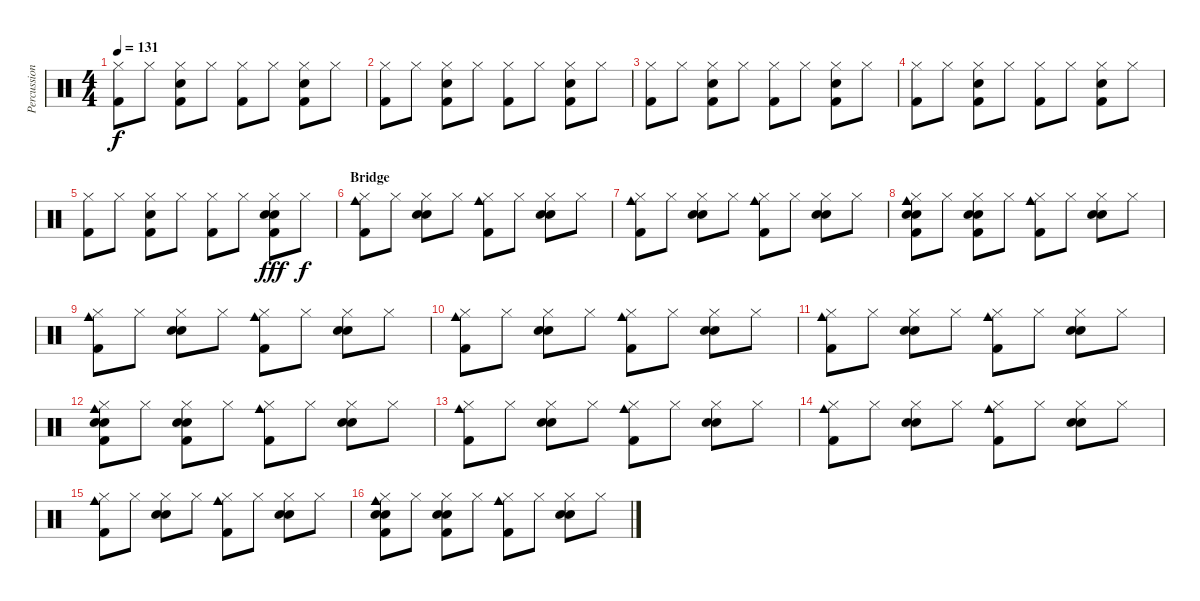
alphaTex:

\track ("Percussion" "Percussion") {instrument percussion}
\staff {score}
\articulation defaults
\ts (4 4)
\tempo 131
\clef neutral
\ks c
("Hi-Hat (closed)" "Kick (hit) 2").8{dy f} "Hi-Hat (closed)".8 ("Hand Clap (hit)" "Hi-Hat (closed)" "Kick (hit) 2").8 "Hi-Hat (closed)".8 ("Hi-Hat (closed)" "Kick (hit) 2").8 "Hi-Hat (closed)".8 ("Hand Clap (hit)" "Hi-Hat (closed)" "Kick (hit) 2").8 "Hi-Hat (closed)".8 |
("Hi-Hat (closed)" "Kick (hit) 2").8 "Hi-Hat (closed)".8 ("Hand Clap (hit)" "Hi-Hat (closed)" "Kick (hit) 2").8 "Hi-Hat (closed)".8 ("Hi-Hat (closed)" "Kick (hit) 2").8 "Hi-Hat (closed)".8 ("Hand Clap (hit)" "Hi-Hat (closed)" "Kick (hit) 2").8 "Hi-Hat (closed)".8 |
("Hi-Hat (closed)" "Kick (hit) 2").8 "Hi-Hat (closed)".8 ("Hand Clap (hit)" "Hi-Hat (closed)" "Kick (hit) 2").8 "Hi-Hat (closed)".8 ("Hi-Hat (closed)" "Kick (hit) 2").8 "Hi-Hat (closed)".8 ("Hand Clap (hit)" "Hi-Hat (closed)" "Kick (hit) 2").8 "Hi-Hat (closed)".8 |
("Hi-Hat (closed)" "Kick (hit) 2").8 "Hi-Hat (closed)".8 ("Hand Clap (hit)" "Hi-Hat (closed)" "Kick (hit) 2").8 "Hi-Hat (closed)".8 ("Hi-Hat (closed)" "Kick (hit) 2").8 "Hi-Hat (closed)".8 ("Hand Clap (hit)" "Hi-Hat (closed)" "Kick (hit) 2").8 "Hi-Hat (closed)".8 |
("Hi-Hat (closed)" "Kick (hit) 2").8 "Hi-Hat (closed)".8 ("Hand Clap (hit)" "Hi-Hat (closed)" "Kick (hit) 2").8 "Hi-Hat (closed)".8 ("Hi-Hat (closed)" "Kick (hit) 2").8 "Hi-Hat (closed)".8 ("Hand Clap (hit)" "Hi-Hat (closed)" "Electric Snare (hit)" "Kick (hit) 2").8{dy fff} "Hi-Hat (closed)".8{dy f} |
\section ("" "Bridge")
("Hi-Hat (closed)" "Cowbell medium (hit)" "Kick (hit) 2").8{volume 9} "Hi-Hat (closed)".8 ("Hand Clap (hit)" "Hi-Hat (closed)" "Electric Snare (hit)").8 "Hi-Hat (closed)".8 ("Hi-Hat (closed)" "Cowbell medium (hit)" "Kick (hit) 2").8 "Hi-Hat (closed)".8 ("Hand Clap (hit)" "Hi-Hat (closed)" "Electric Snare (hit)").8 "Hi-Hat (closed)".8 |
("Hi-Hat (closed)" "Cowbell medium (hit)" "Kick (hit) 2").8 "Hi-Hat (closed)".8 ("Hand Clap (hit)" "Hi-Hat (closed)" "Electric Snare (hit)").8 "Hi-Hat (closed)".8 ("Hi-Hat (closed)" "Cowbell medium (hit)" "Kick (hit) 2").8 "Hi-Hat (closed)".8 ("Hand Clap (hit)" "Hi-Hat (closed)" "Electric Snare (hit)").8 "Hi-Hat (closed)".8 |
("Hand Clap (hit)" "Hi-Hat (closed)" "Electric Snare (hit)" "Cowbell medium (hit)" "Kick (hit) 2").8 "Hi-Hat (closed)".8 ("Hand Clap (hit)" "Hi-Hat (closed)" "Electric Snare (hit)" "Kick (hit) 2").8 "Hi-Hat (closed)".8 ("Hi-Hat (closed)" "Cowbell medium (hit)" "Kick (hit) 2").8 "Hi-Hat (closed)".8 ("Hand Clap (hit)" "Hi-Hat (closed)" "Electric Snare (hit)").8 "Hi-Hat (closed)".8 |
("Hi-Hat (closed)" "Cowbell medium (hit)" "Kick (hit) 2").8 "Hi-Hat (closed)".8 ("Hand Clap (hit)" "Hi-Hat (closed)" "Electric Snare (hit)").8 "Hi-Hat (closed)".8 ("Hi-Hat (closed)" "Cowbell medium (hit)" "Kick (hit) 2").8 "Hi-Hat (closed)".8 ("Hand Clap (hit)" "Hi-Hat (closed)" "Electric Snare (hit)").8 "Hi-Hat (closed)".8 |
("Hi-Hat (closed)" "Cowbell medium (hit)" "Kick (hit) 2").8 "Hi-Hat (closed)".8 ("Hand Clap (hit)" "Hi-Hat (closed)" "Electric Snare (hit)").8 "Hi-Hat (closed)".8 ("Hi-Hat (closed)" "Cowbell medium (hit)" "Kick (hit) 2").8 "Hi-Hat (closed)".8 ("Hand Clap (hit)" "Hi-Hat (closed)" "Electric Snare (hit)").8 "Hi-Hat (closed)".8 |
("Hi-Hat (closed)" "Cowbell medium (hit)" "Kick (hit) 2").8 "Hi-Hat (closed)".8 ("Hand Clap (hit)" "Hi-Hat (closed)" "Electric Snare (hit)").8 "Hi-Hat (closed)".8 ("Hi-Hat (closed)" "Cowbell medium (hit)" "Kick (hit) 2").8 "Hi-Hat (closed)".8 ("Hand Clap (hit)" "Hi-Hat (closed)" "Electric Snare (hit)").8 "Hi-Hat (closed)".8 |
("Hand Clap (hit)" "Hi-Hat (closed)" "Electric Snare (hit)" "Cowbell medium (hit)" "Kick (hit) 2").8 "Hi-Hat (closed)".8 ("Hand Clap (hit)" "Hi-Hat (closed)" "Electric Snare (hit)" "Kick (hit) 2").8 "Hi-Hat (closed)".8 ("Hi-Hat (closed)" "Cowbell medium (hit)" "Kick (hit) 2").8 "Hi-Hat (closed)".8 ("Hand Clap (hit)" "Hi-Hat (closed)" "Electric Snare (hit)").8 "Hi-Hat (closed)".8 |
("Hi-Hat (closed)" "Cowbell medium (hit)" "Kick (hit) 2").8 "Hi-Hat (closed)".8 ("Hand Clap (hit)" "Hi-Hat (closed)" "Electric Snare (hit)").8 "Hi-Hat (closed)".8 ("Hi-Hat (closed)" "Cowbell medium (hit)" "Kick (hit) 2").8 "Hi-Hat (closed)".8 ("Hand Clap (hit)" "Hi-Hat (closed)" "Electric Snare (hit)").8 "Hi-Hat (closed)".8 |
("Hi-Hat (closed)" "Cowbell medium (hit)" "Kick (hit) 2").8 "Hi-Hat (closed)".8 ("Hand Clap (hit)" "Hi-Hat (closed)" "Electric Snare (hit)").8 "Hi-Hat (closed)".8 ("Hi-Hat (closed)" "Cowbell medium (hit)" "Kick (hit) 2").8 "Hi-Hat (closed)".8 ("Hand Clap (hit)" "Hi-Hat (closed)" "Electric Snare (hit)").8 "Hi-Hat (closed)".8 |
("Hi-Hat (closed)" "Cowbell medium (hit)" "Kick (hit) 2").8 "Hi-Hat (closed)".8 ("Hand Clap (hit)" "Hi-Hat (closed)" "Electric Snare (hit)").8 "Hi-Hat (closed)".8 ("Hi-Hat (closed)" "Cowbell medium (hit)" "Kick (hit) 2").8 "Hi-Hat (closed)".8 ("Hand Clap (hit)" "Hi-Hat (closed)" "Electric Snare (hit)").8 "Hi-Hat (closed)".8 |
("Hand Clap (hit)" "Hi-Hat (closed)" "Electric Snare (hit)" "Cowbell medium (hit)" "Kick (hit) 2").8 "Hi-Hat (closed)".8 ("Hand Clap (hit)" "Hi-Hat (closed)" "Electric Snare (hit)" "Kick (hit) 2").8 "Hi-Hat (closed)".8 ("Hi-Hat (closed)" "Cowbell medium (hit)" "Kick (hit) 2").8 "Hi-Hat (closed)".8 ("Hand Clap (hit)" "Hi-Hat (closed)" "Electric Snare (hit)").8 "Hi-Hat (closed)".8
